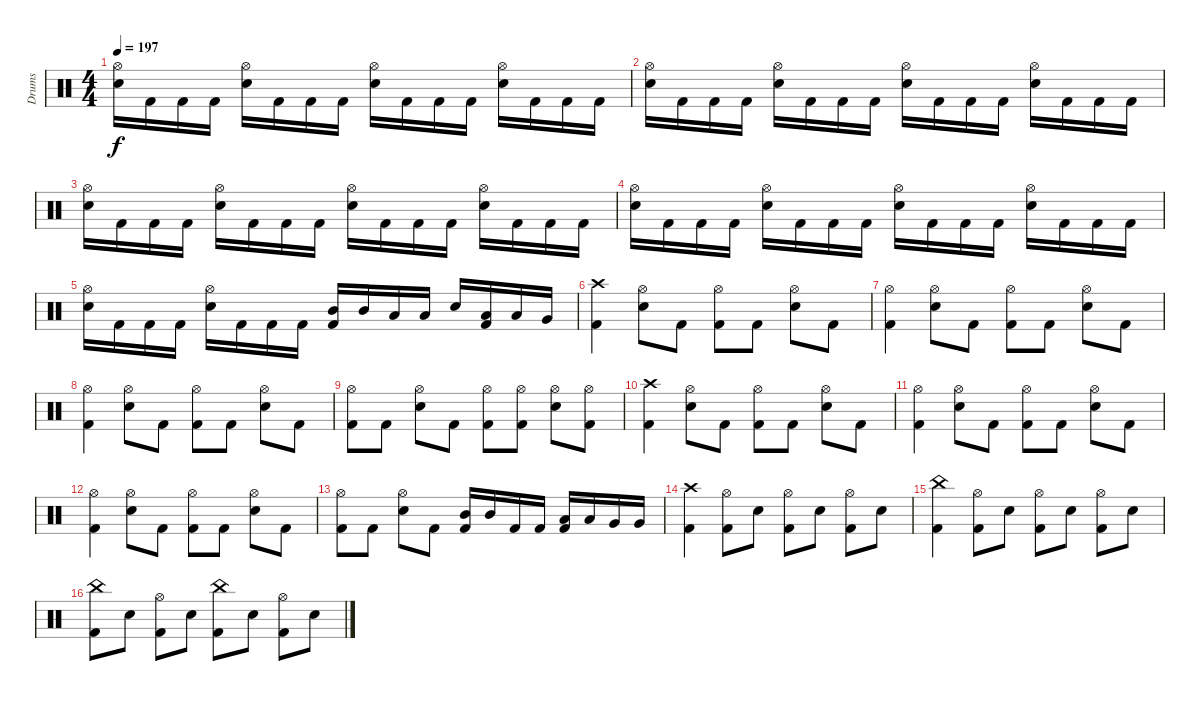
\track ("Drums" "Drums") {instrument percussion}
\staff {score}
\articulation defaults
\ts (4 4)
\tempo 197
\clef neutral
\ks c
("Hi-Hat (open)" "Electric Snare (hit)").16{dy f} "Kick (hit) 2".16 "Kick (hit) 2".16 "Kick (hit) 2".16 ("Hi-Hat (open)" "Electric Snare (hit)").16 "Kick (hit) 2".16 "Kick (hit) 2".16 "Kick (hit) 2".16 ("Hi-Hat (open)" "Electric Snare (hit)").16 "Kick (hit) 2".16 "Kick (hit) 2".16 "Kick (hit) 2".16 ("Hi-Hat (open)" "Electric Snare (hit)").16 "Kick (hit) 2".16 "Kick (hit) 2".16 "Kick (hit) 2".16 |
("Hi-Hat (open)" "Electric Snare (hit)").16 "Kick (hit) 2".16 "Kick (hit) 2".16 "Kick (hit) 2".16 ("Hi-Hat (open)" "Electric Snare (hit)").16 "Kick (hit) 2".16 "Kick (hit) 2".16 "Kick (hit) 2".16 ("Hi-Hat (open)" "Electric Snare (hit)").16 "Kick (hit) 2".16 "Kick (hit) 2".16 "Kick (hit) 2".16 ("Hi-Hat (open)" "Electric Snare (hit)").16 "Kick (hit) 2".16 "Kick (hit) 2".16 "Kick (hit) 2".16 |
("Hi-Hat (open)" "Electric Snare (hit)").16 "Kick (hit) 2".16 "Kick (hit) 2".16 "Kick (hit) 2".16 ("Hi-Hat (open)" "Electric Snare (hit)").16 "Kick (hit) 2".16 "Kick (hit) 2".16 "Kick (hit) 2".16 ("Hi-Hat (open)" "Electric Snare (hit)").16 "Kick (hit) 2".16 "Kick (hit) 2".16 "Kick (hit) 2".16 ("Hi-Hat (open)" "Electric Snare (hit)").16 "Kick (hit) 2".16 "Kick (hit) 2".16 "Kick (hit) 2".16 |
("Hi-Hat (open)" "Electric Snare (hit)").16 "Kick (hit) 2".16 "Kick (hit) 2".16 "Kick (hit) 2".16 ("Hi-Hat (open)" "Electric Snare (hit)").16 "Kick (hit) 2".16 "Kick (hit) 2".16 "Kick (hit) 2".16 ("Hi-Hat (open)" "Electric Snare (hit)").16 "Kick (hit) 2".16 "Kick (hit) 2".16 "Kick (hit) 2".16 ("Hi-Hat (open)" "Electric Snare (hit)").16 "Kick (hit) 2".16 "Kick (hit) 2".16 "Kick (hit) 2".16 |
("Hi-Hat (open)" "Electric Snare (hit)").16 "Kick (hit) 2".16 "Kick (hit) 2".16 "Kick (hit) 2".16 ("Hi-Hat (open)" "Electric Snare (hit)").16 "Kick (hit) 2".16 "Kick (hit) 2".16 "Kick (hit) 2".16 ("Mid Tom (hit)" "Kick (hit) 2").16 "Mid Tom (hit)".16 "Low Tom (hit)".16 "Low Tom (hit)".16 "Electric Snare (hit)".16 ("Low Tom (hit)" "Kick (hit) 2").16 "Low Tom (hit)".16 "Very Low Tom (hit)".16 |
("Crash high (hit)" "Kick (hit) 2").4 ("Hi-Hat (open)" "Electric Snare (hit)").8 "Kick (hit) 2".8 ("Hi-Hat (open)" "Kick (hit) 2").8 "Kick (hit) 2".8 ("Hi-Hat (open)" "Electric Snare (hit)").8 "Kick (hit) 2".8 |
("Hi-Hat (open)" "Kick (hit) 2").4 ("Hi-Hat (open)" "Electric Snare (hit)").8 "Kick (hit) 2".8 ("Hi-Hat (open)" "Kick (hit) 2").8 "Kick (hit) 2".8 ("Hi-Hat (open)" "Electric Snare (hit)").8 "Kick (hit) 2".8 |
("Hi-Hat (open)" "Kick (hit) 2").4 ("Hi-Hat (open)" "Electric Snare (hit)").8 "Kick (hit) 2".8 ("Hi-Hat (open)" "Kick (hit) 2").8 "Kick (hit) 2".8 ("Hi-Hat (open)" "Electric Snare (hit)").8 "Kick (hit) 2".8 |
("Hi-Hat (open)" "Kick (hit) 2").8 "Kick (hit) 2".8 ("Hi-Hat (open)" "Electric Snare (hit)").8 "Kick (hit) 2".8 ("Hi-Hat (open)" "Kick (hit) 2").8 ("Hi-Hat (open)" "Kick (hit) 2").8 ("Hi-Hat (open)" "Electric Snare (hit)").8 ("Hi-Hat (open)" "Kick (hit) 2").8 |
("Crash high (hit)" "Kick (hit) 2").4 ("Hi-Hat (open)" "Electric Snare (hit)").8 "Kick (hit) 2".8 ("Hi-Hat (open)" "Kick (hit) 2").8 "Kick (hit) 2".8 ("Hi-Hat (open)" "Electric Snare (hit)").8 "Kick (hit) 2".8 |
("Hi-Hat (open)" "Kick (hit) 2").4 ("Hi-Hat (open)" "Electric Snare (hit)").8 "Kick (hit) 2".8 ("Hi-Hat (open)" "Kick (hit) 2").8 "Kick (hit) 2".8 ("Hi-Hat (open)" "Electric Snare (hit)").8 "Kick (hit) 2".8 |
("Hi-Hat (open)" "Kick (hit) 2").4 ("Hi-Hat (open)" "Electric Snare (hit)").8 "Kick (hit) 2".8 ("Hi-Hat (open)" "Kick (hit) 2").8 "Kick (hit) 2".8 ("Hi-Hat (open)" "Electric Snare (hit)").8 "Kick (hit) 2".8 |
("Hi-Hat (open)" "Kick (hit) 2").8 "Kick (hit) 2".8 ("Hi-Hat (open)" "Electric Snare (hit)").8 "Kick (hit) 2".8 ("Mid Tom (hit)" "Kick (hit) 2").16 "Mid Tom (hit)".16 "Kick (hit) 2".16 "Kick (hit) 2".16 ("Low Tom (hit)" "Kick (hit) 2").16 "Low Tom (hit)".16 "Very Low Tom (hit)".16 "Very Low Tom (hit)".16 |
("Crash high (hit)" "Kick (hit) 2").4 ("Hi-Hat (open)" "Kick (hit) 2").8 "Electric Snare (hit)".8 ("Hi-Hat (open)" "Kick (hit) 2").8 "Electric Snare (hit)".8 ("Hi-Hat (open)" "Kick (hit) 2").8 "Electric Snare (hit)".8 |
("China (hit)" "Kick (hit) 2").4 ("Hi-Hat (open)" "Kick (hit) 2").8 "Electric Snare (hit)".8 ("Hi-Hat (open)" "Kick (hit) 2").8 "Electric Snare (hit)".8 ("Hi-Hat (open)" "Kick (hit) 2").8 "Electric Snare (hit)".8 |
("China (hit)" "Kick (hit) 2").8 "Electric Snare (hit)".8 ("Hi-Hat (open)" "Kick (hit) 2").8 "Electric Snare (hit)".8 ("China (hit)" "Kick (hit) 2").8 "Electric Snare (hit)".8 ("Hi-Hat (open)" "Kick (hit) 2").8 "Electric Snare (hit)".8
